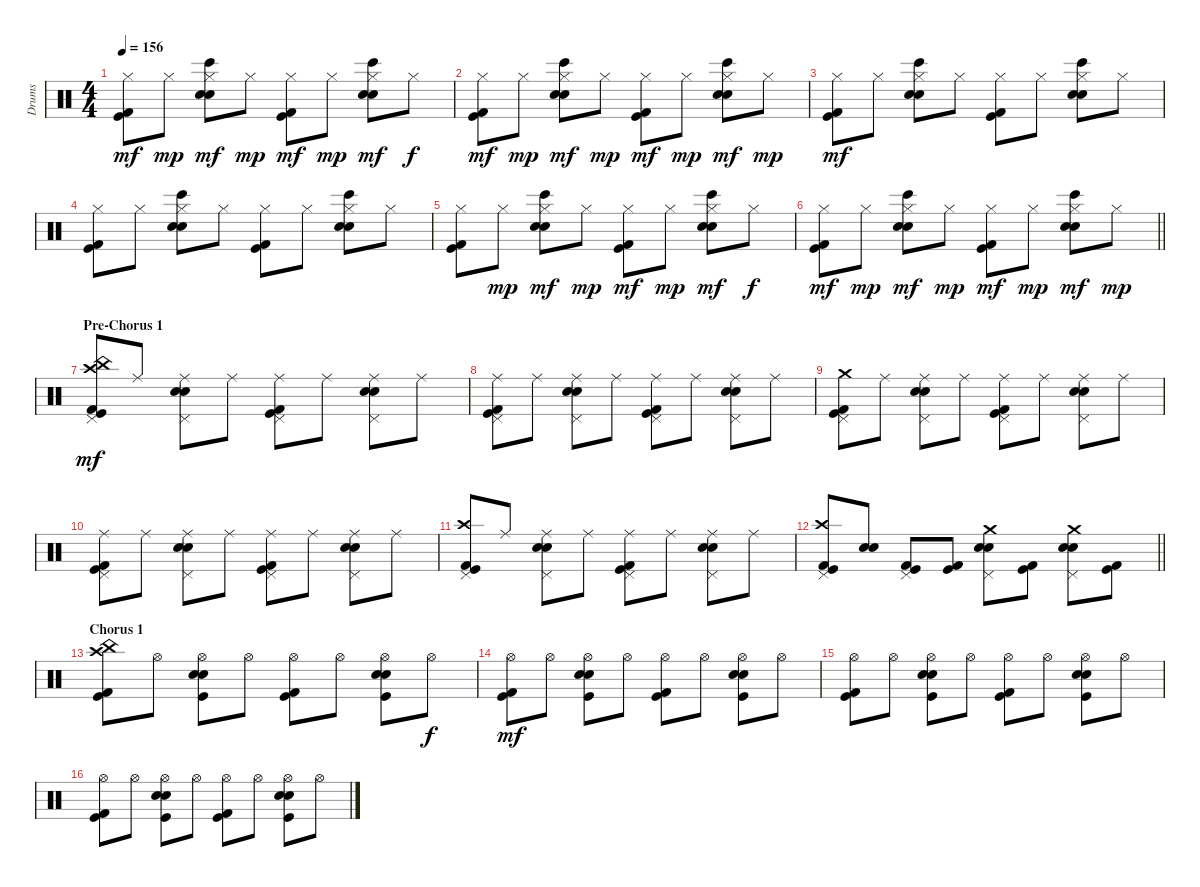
\track ("Drums" "Drums") {instrument percussion}
\staff {score}
\articulation defaults
\ts (4 4)
\tempo 156
\clef neutral
\ks c
("Hi-Hat (closed)" "Kick (hit) 2" "Kick (hit)").8{dy mf} "Hi-Hat (closed)".8{dy mp} ("Hi-Hat (closed)" "Bongo High (hit)" "Snare (hit) 2" "Electric Snare (hit)").8{dy mf} "Hi-Hat (closed)".8{dy mp} ("Hi-Hat (closed)" "Kick (hit) 2" "Kick (hit)").8{dy mf} "Hi-Hat (closed)".8{dy mp} ("Hi-Hat (closed)" "Bongo High (hit)" "Snare (hit) 2" "Electric Snare (hit)").8{dy mf} "Hi-Hat (closed)".8{dy f} |
("Hi-Hat (closed)" "Kick (hit) 2" "Kick (hit)").8{dy mf} "Hi-Hat (closed)".8{dy mp} ("Hi-Hat (closed)" "Bongo High (hit)" "Snare (hit) 2" "Electric Snare (hit)").8{dy mf} "Hi-Hat (closed)".8{dy mp} ("Hi-Hat (closed)" "Kick (hit) 2" "Kick (hit)").8{dy mf} "Hi-Hat (closed)".8{dy mp} ("Hi-Hat (closed)" "Bongo High (hit)" "Snare (hit) 2" "Electric Snare (hit)").8{dy mf} "Hi-Hat (closed)".8{dy mp} |
("Hi-Hat (closed)" "Kick (hit) 2" "Kick (hit)").8{dy mf} "Hi-Hat (closed)".8 ("Hi-Hat (closed)" "Bongo High (hit)" "Snare (hit) 2" "Electric Snare (hit)").8 "Hi-Hat (closed)".8 ("Hi-Hat (closed)" "Kick (hit) 2" "Kick (hit)").8 "Hi-Hat (closed)".8 ("Hi-Hat (closed)" "Bongo High (hit)" "Snare (hit) 2" "Electric Snare (hit)").8 "Hi-Hat (closed)".8 |
("Hi-Hat (closed)" "Kick (hit) 2" "Kick (hit)").8 "Hi-Hat (closed)".8 ("Hi-Hat (closed)" "Bongo High (hit)" "Snare (hit) 2" "Electric Snare (hit)").8 "Hi-Hat (closed)".8 ("Hi-Hat (closed)" "Kick (hit) 2" "Kick (hit)").8 "Hi-Hat (closed)".8 ("Hi-Hat (closed)" "Bongo High (hit)" "Snare (hit) 2" "Electric Snare (hit)").8 "Hi-Hat (closed)".8 |
("Hi-Hat (closed)" "Kick (hit) 2" "Kick (hit)").8 "Hi-Hat (closed)".8{dy mp} ("Hi-Hat (closed)" "Bongo High (hit)" "Snare (hit) 2" "Electric Snare (hit)").8{dy mf} "Hi-Hat (closed)".8{dy mp} ("Hi-Hat (closed)" "Kick (hit) 2" "Kick (hit)").8{dy mf} "Hi-Hat (closed)".8{dy mp} ("Hi-Hat (closed)" "Bongo High (hit)" "Snare (hit) 2" "Electric Snare (hit)").8{dy mf} "Hi-Hat (closed)".8{dy f} |
\barLineRight lightlight
("Hi-Hat (closed)" "Kick (hit) 2" "Kick (hit)").8{dy mf} "Hi-Hat (closed)".8{dy mp} ("Hi-Hat (closed)" "Bongo High (hit)" "Snare (hit) 2" "Electric Snare (hit)").8{dy mf} "Hi-Hat (closed)".8{dy mp} ("Hi-Hat (closed)" "Kick (hit) 2" "Kick (hit)").8{dy mf} "Hi-Hat (closed)".8{dy mp} ("Hi-Hat (closed)" "Bongo High (hit)" "Snare (hit) 2" "Electric Snare (hit)").8{dy mf} "Hi-Hat (closed)".8{dy mp} |
\section ("" "Pre-Chorus 1")
("Crash high (hit)" "China (hit)" "Pedal Hi-Hat (hit)" "Kick (hit) 2" "Kick (hit)").8{dy mf} "Ride (middle)".8 ("Ride (middle)" "Pedal Hi-Hat (hit)" "Snare (hit) 2" "Electric Snare (hit)").8 "Ride (middle)".8 ("Ride (middle)" "Pedal Hi-Hat (hit)" "Kick (hit) 2" "Kick (hit)").8 "Ride (middle)".8 ("Ride (middle)" "Pedal Hi-Hat (hit)" "Snare (hit) 2" "Electric Snare (hit)").8 "Ride (middle)".8 |
("Ride (middle)" "Pedal Hi-Hat (hit)" "Kick (hit) 2" "Kick (hit)").8 "Ride (middle)".8 ("Ride (middle)" "Pedal Hi-Hat (hit)" "Snare (hit) 2" "Electric Snare (hit)").8 "Ride (middle)".8 ("Ride (middle)" "Pedal Hi-Hat (hit)" "Kick (hit) 2" "Kick (hit)").8 "Ride (middle)".8 ("Ride (middle)" "Pedal Hi-Hat (hit)" "Snare (hit) 2" "Electric Snare (hit)").8 "Ride (middle)".8 |
("Crash medium (hit)" "Pedal Hi-Hat (hit)" "Kick (hit) 2" "Kick (hit)").8 "Ride (middle)".8 ("Ride (middle)" "Pedal Hi-Hat (hit)" "Snare (hit) 2" "Electric Snare (hit)").8 "Ride (middle)".8 ("Ride (middle)" "Pedal Hi-Hat (hit)" "Kick (hit) 2" "Kick (hit)").8 "Ride (middle)".8 ("Ride (middle)" "Pedal Hi-Hat (hit)" "Snare (hit) 2" "Electric Snare (hit)").8 "Ride (middle)".8 |
("Ride (middle)" "Pedal Hi-Hat (hit)" "Kick (hit) 2" "Kick (hit)").8 "Ride (middle)".8 ("Ride (middle)" "Pedal Hi-Hat (hit)" "Snare (hit) 2" "Electric Snare (hit)").8 "Ride (middle)".8 ("Ride (middle)" "Pedal Hi-Hat (hit)" "Kick (hit) 2" "Kick (hit)").8 "Ride (middle)".8 ("Ride (middle)" "Pedal Hi-Hat (hit)" "Snare (hit) 2" "Electric Snare (hit)").8 "Ride (middle)".8 |
("Crash high (hit)" "Pedal Hi-Hat (hit)" "Kick (hit) 2" "Kick (hit)").8 "Ride (middle)".8 ("Ride (middle)" "Pedal Hi-Hat (hit)" "Snare (hit) 2" "Electric Snare (hit)").8 "Ride (middle)".8 ("Ride (middle)" "Pedal Hi-Hat (hit)" "Kick (hit) 2" "Kick (hit)").8 "Ride (middle)".8 ("Ride (middle)" "Pedal Hi-Hat (hit)" "Snare (hit) 2" "Electric Snare (hit)").8 "Ride (middle)".8 |
\barLineRight lightlight
("Crash high (hit)" "Pedal Hi-Hat (hit)" "Kick (hit) 2" "Kick (hit)").8 ("Snare (hit) 2" "Electric Snare (hit)").8 ("Pedal Hi-Hat (hit)" "Kick (hit) 2" "Kick (hit)").8 ("Kick (hit) 2" "Kick (hit)").8 ("Crash medium (hit)" "Pedal Hi-Hat (hit)" "Snare (hit) 2" "Electric Snare (hit)").8 ("Kick (hit) 2" "Kick (hit)").8 ("Crash medium (hit)" "Pedal Hi-Hat (hit)" "Snare (hit) 2" "Electric Snare (hit)").8 ("Kick (hit) 2" "Kick (hit)").8 |
\section ("" "Chorus 1")
("Crash high (hit)" "China (hit)" "Kick (hit) 2" "Kick (hit)").8 "Hi-Hat (open)".8 ("Hi-Hat (open)" "Snare (hit) 2" "Electric Snare (hit)" "Kick (hit)").8 "Hi-Hat (open)".8 ("Hi-Hat (open)" "Kick (hit) 2" "Kick (hit)").8 "Hi-Hat (open)".8 ("Hi-Hat (open)" "Snare (hit) 2" "Electric Snare (hit)" "Kick (hit)").8 "Hi-Hat (open)".8{dy f} |
("Hi-Hat (open)" "Kick (hit) 2" "Kick (hit)").8{dy mf} "Hi-Hat (open)".8 ("Hi-Hat (open)" "Snare (hit) 2" "Electric Snare (hit)" "Kick (hit)").8 "Hi-Hat (open)".8 ("Hi-Hat (open)" "Kick (hit) 2" "Kick (hit)").8 "Hi-Hat (open)".8 ("Hi-Hat (open)" "Snare (hit) 2" "Electric Snare (hit)" "Kick (hit)").8 "Hi-Hat (open)".8 |
("Hi-Hat (open)" "Kick (hit) 2" "Kick (hit)").8 "Hi-Hat (open)".8 ("Hi-Hat (open)" "Snare (hit) 2" "Electric Snare (hit)" "Kick (hit)").8 "Hi-Hat (open)".8 ("Hi-Hat (open)" "Kick (hit) 2" "Kick (hit)").8 "Hi-Hat (open)".8 ("Hi-Hat (open)" "Snare (hit) 2" "Electric Snare (hit)" "Kick (hit)").8 "Hi-Hat (open)".8 |
("Hi-Hat (open)" "Kick (hit) 2" "Kick (hit)").8 "Hi-Hat (open)".8 ("Hi-Hat (open)" "Snare (hit) 2" "Electric Snare (hit)" "Kick (hit)").8 "Hi-Hat (open)".8 ("Hi-Hat (open)" "Kick (hit) 2" "Kick (hit)").8 "Hi-Hat (open)".8 ("Hi-Hat (open)" "Snare (hit) 2" "Electric Snare (hit)" "Kick (hit)").8 "Hi-Hat (open)".8
